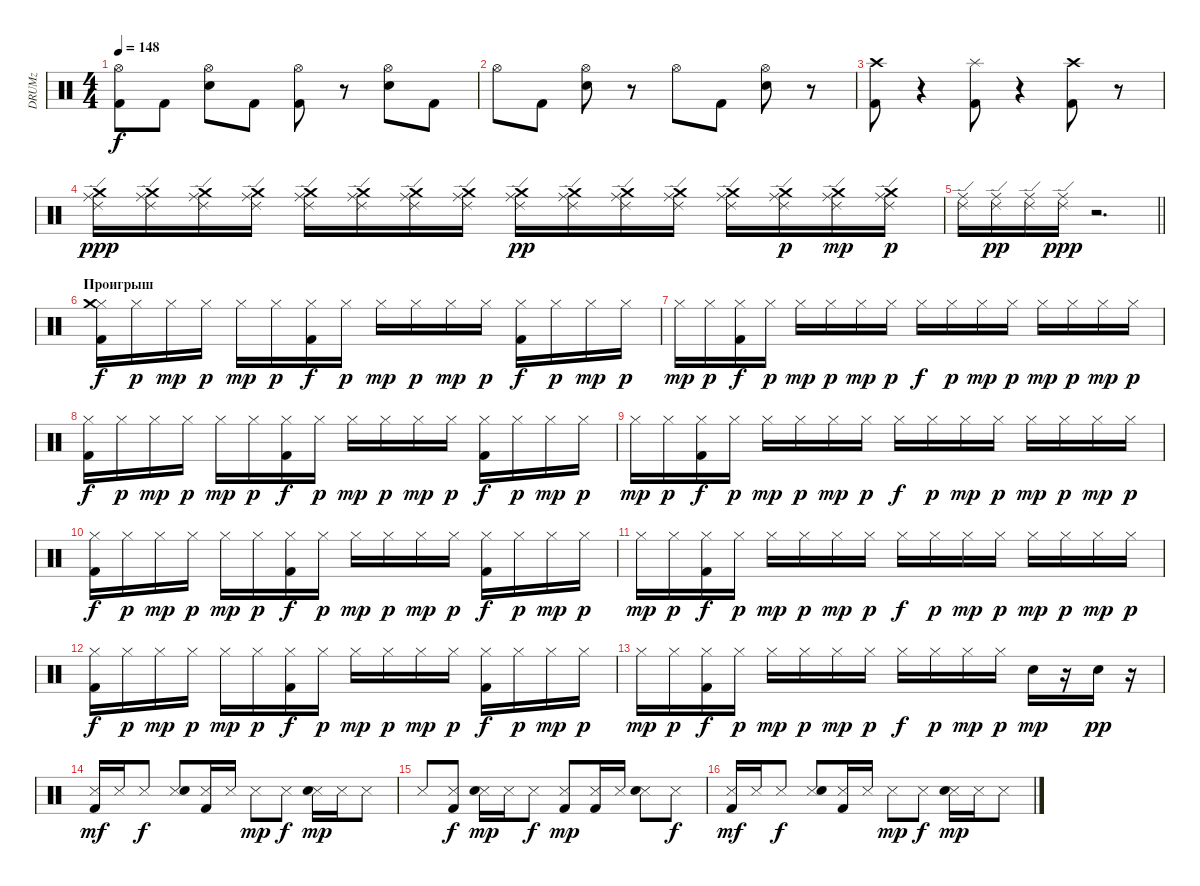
\track ("DRUMz" "DRUMz") {instrument percussion}
\staff {score}
\articulation defaults
\ts (4 4)
\tempo 148
\clef neutral
\ks c
("Hi-Hat (open)" "Kick (hit) 2").8{dy f} "Kick (hit) 2".8 ("Hi-Hat (open)" "Snare (hit) 2").8 "Kick (hit) 2".8 ("Hi-Hat (open)" "Kick (hit) 2").8 r.8 ("Hi-Hat (open)" "Snare (hit) 2").8 "Kick (hit) 2".8 |
"Hi-Hat (open)".8 "Kick (hit) 2".8 ("Hi-Hat (open)" "Snare (hit) 2").8 r.8 "Hi-Hat (open)".8 "Kick (hit) 2".8 ("Hi-Hat (open)" "Snare (hit) 2").8 r.8 |
("Kick (hit) 2" "Crash high (hit)").8 r.4 ("Splash (hit)" "Kick (hit) 2").8 r.4 ("Kick (hit) 2" "Crash high (hit)").8 r.8 |
("Ride (middle)" "Ride (edge) 2" "Crash medium (hit)").16{dy ppp} ("Ride (middle)" "Crash medium (hit)" "Ride (edge) 2").16 ("Ride (middle)" "Crash medium (hit)" "Ride (edge) 2").16 ("Ride (middle)" "Crash medium (hit)" "Ride (edge) 2").16 ("Ride (middle)" "Crash medium (hit)" "Ride (edge) 2").16 ("Ride (middle)" "Crash medium (hit)" "Ride (edge) 2").16 ("Ride (middle)" "Crash medium (hit)" "Ride (edge) 2").16 ("Ride (middle)" "Crash medium (hit)" "Ride (edge) 2").16 ("Ride (middle)" "Crash medium (hit)" "Ride (edge) 2").16{dy pp} ("Ride (middle)" "Crash medium (hit)" "Ride (edge) 2").16 ("Ride (middle)" "Crash medium (hit)" "Ride (edge) 2").16 ("Ride (middle)" "Crash medium (hit)" "Ride (edge) 2").16 ("Ride (middle)" "Crash medium (hit)" "Ride (edge) 2").16 ("Ride (middle)" "Ride (edge) 2" "Crash medium (hit)").16{dy p} ("Ride (middle)" "Ride (edge) 2" "Crash medium (hit)").16{dy mp} ("Ride (middle)" "Crash medium (hit)" "Ride (edge) 2").16{dy p} |
\barLineRight lightlight
("Ride (middle)" "Ride (edge) 2").16 ("Ride (middle)" "Ride (edge) 2").16{dy pp} ("Ride (middle)" "Ride (edge) 2").16 ("Ride (middle)" "Ride (edge) 2").16{dy ppp} r.2{d} |
\section ("" "Проигрыш")
("Hi-Hat (closed)" "Kick (hit) 2" "Crash medium (hit)").16{dy f} "Hi-Hat (closed)".16{dy p} "Hi-Hat (closed)".16{dy mp} "Hi-Hat (closed)".16{dy p} "Hi-Hat (closed)".16{dy mp} "Hi-Hat (closed)".16{dy p} ("Hi-Hat (closed)" "Kick (hit) 2").16{dy f} "Hi-Hat (closed)".16{dy p} "Hi-Hat (closed)".16{dy mp} "Hi-Hat (closed)".16{dy p} "Hi-Hat (closed)".16{dy mp} "Hi-Hat (closed)".16{dy p} ("Kick (hit) 2" "Hi-Hat (closed)").16{dy f} "Hi-Hat (closed)".16{dy p} "Hi-Hat (closed)".16{dy mp} "Hi-Hat (closed)".16{dy p} |
"Hi-Hat (closed)".16{dy mp} "Hi-Hat (closed)".16{dy p} ("Hi-Hat (closed)" "Kick (hit) 2").16{dy f} "Hi-Hat (closed)".16{dy p} "Hi-Hat (closed)".16{dy mp} "Hi-Hat (closed)".16{dy p} "Hi-Hat (closed)".16{dy mp} "Hi-Hat (closed)".16{dy p} "Hi-Hat (closed)".16{dy f} "Hi-Hat (closed)".16{dy p} "Hi-Hat (closed)".16{dy mp} "Hi-Hat (closed)".16{dy p} "Hi-Hat (closed)".16{dy mp} "Hi-Hat (closed)".16{dy p} "Hi-Hat (closed)".16{dy mp} "Hi-Hat (closed)".16{dy p} |
("Hi-Hat (closed)" "Kick (hit) 2").16{dy f} "Hi-Hat (closed)".16{dy p} "Hi-Hat (closed)".16{dy mp} "Hi-Hat (closed)".16{dy p} "Hi-Hat (closed)".16{dy mp} "Hi-Hat (closed)".16{dy p} ("Hi-Hat (closed)" "Kick (hit) 2").16{dy f} "Hi-Hat (closed)".16{dy p} "Hi-Hat (closed)".16{dy mp} "Hi-Hat (closed)".16{dy p} "Hi-Hat (closed)".16{dy mp} "Hi-Hat (closed)".16{dy p} ("Kick (hit) 2" "Hi-Hat (closed)").16{dy f} "Hi-Hat (closed)".16{dy p} "Hi-Hat (closed)".16{dy mp} "Hi-Hat (closed)".16{dy p} |
"Hi-Hat (closed)".16{dy mp} "Hi-Hat (closed)".16{dy p} ("Hi-Hat (closed)" "Kick (hit) 2").16{dy f} "Hi-Hat (closed)".16{dy p} "Hi-Hat (closed)".16{dy mp} "Hi-Hat (closed)".16{dy p} "Hi-Hat (closed)".16{dy mp} "Hi-Hat (closed)".16{dy p} "Hi-Hat (closed)".16{dy f} "Hi-Hat (closed)".16{dy p} "Hi-Hat (closed)".16{dy mp} "Hi-Hat (closed)".16{dy p} "Hi-Hat (closed)".16{dy mp} "Hi-Hat (closed)".16{dy p} "Hi-Hat (closed)".16{dy mp} "Hi-Hat (closed)".16{dy p} |
("Hi-Hat (closed)" "Kick (hit) 2").16{dy f} "Hi-Hat (closed)".16{dy p} "Hi-Hat (closed)".16{dy mp} "Hi-Hat (closed)".16{dy p} "Hi-Hat (closed)".16{dy mp} "Hi-Hat (closed)".16{dy p} ("Hi-Hat (closed)" "Kick (hit) 2").16{dy f} "Hi-Hat (closed)".16{dy p} "Hi-Hat (closed)".16{dy mp} "Hi-Hat (closed)".16{dy p} "Hi-Hat (closed)".16{dy mp} "Hi-Hat (closed)".16{dy p} ("Kick (hit) 2" "Hi-Hat (closed)").16{dy f} "Hi-Hat (closed)".16{dy p} "Hi-Hat (closed)".16{dy mp} "Hi-Hat (closed)".16{dy p} |
"Hi-Hat (closed)".16{dy mp} "Hi-Hat (closed)".16{dy p} ("Hi-Hat (closed)" "Kick (hit) 2").16{dy f} "Hi-Hat (closed)".16{dy p} "Hi-Hat (closed)".16{dy mp} "Hi-Hat (closed)".16{dy p} "Hi-Hat (closed)".16{dy mp} "Hi-Hat (closed)".16{dy p} "Hi-Hat (closed)".16{dy f} "Hi-Hat (closed)".16{dy p} "Hi-Hat (closed)".16{dy mp} "Hi-Hat (closed)".16{dy p} "Hi-Hat (closed)".16{dy mp} "Hi-Hat (closed)".16{dy p} "Hi-Hat (closed)".16{dy mp} "Hi-Hat (closed)".16{dy p} |
("Hi-Hat (closed)" "Kick (hit) 2").16{dy f} "Hi-Hat (closed)".16{dy p} "Hi-Hat (closed)".16{dy mp} "Hi-Hat (closed)".16{dy p} "Hi-Hat (closed)".16{dy mp} "Hi-Hat (closed)".16{dy p} ("Hi-Hat (closed)" "Kick (hit) 2").16{dy f} "Hi-Hat (closed)".16{dy p} "Hi-Hat (closed)".16{dy mp} "Hi-Hat (closed)".16{dy p} "Hi-Hat (closed)".16{dy mp} "Hi-Hat (closed)".16{dy p} ("Hi-Hat (closed)" "Kick (hit) 2").16{dy f} "Hi-Hat (closed)".16{dy p} "Hi-Hat (closed)".16{dy mp} "Hi-Hat (closed)".16{dy p} |
"Hi-Hat (closed)".16{dy mp} "Hi-Hat (closed)".16{dy p} ("Hi-Hat (closed)" "Kick (hit) 2").16{dy f} "Hi-Hat (closed)".16{dy p} "Hi-Hat (closed)".16{dy mp} "Hi-Hat (closed)".16{dy p} "Hi-Hat (closed)".16{dy mp} "Hi-Hat (closed)".16{dy p} "Hi-Hat (closed)".16{dy f} "Hi-Hat (closed)".16{dy p} "Hi-Hat (closed)".16{dy mp} "Hi-Hat (closed)".16{dy p} "Snare (hit) 2".16{dy mp} r.16 "Electric Snare (hit)".16{dy pp} r.16 |
("Snare (side stick) 3" "Kick (hit) 2").16{dy mf} "Snare (side stick) 3".16 "Snare (side stick) 3".8{dy f} ("Snare (side stick) 3" "Electric Snare (hit)").8 ("Snare (side stick) 3" "Kick (hit) 2").16 "Snare (side stick) 3".16 "Snare (side stick) 3".8{dy mp} "Snare (side stick) 3".8{dy f} ("Snare (side stick) 3" "Electric Snare (hit)").16{dy mp} "Snare (side stick) 3".16 "Snare (side stick) 3".8 |
"Snare (side stick) 3".8 ("Snare (side stick) 3" "Kick (hit) 2").8{dy f} ("Snare (side stick) 3" "Electric Snare (hit)").16{dy mp} "Snare (side stick) 3".16 "Snare (side stick) 3".8{dy f} ("Snare (side stick) 3" "Kick (hit) 2").8{dy mp} ("Snare (side stick) 3" "Kick (hit) 2").16 "Snare (side stick) 3".16 ("Snare (side stick) 3" "Electric Snare (hit)").8 "Snare (side stick) 3".8{dy f} |
("Snare (side stick) 3" "Kick (hit) 2").16{dy mf} "Snare (side stick) 3".16 "Snare (side stick) 3".8{dy f} ("Snare (side stick) 3" "Electric Snare (hit)").8 ("Snare (side stick) 3" "Kick (hit) 2").16 "Snare (side stick) 3".16 "Snare (side stick) 3".8{dy mp} "Snare (side stick) 3".8{dy f} ("Snare (side stick) 3" "Electric Snare (hit)").16{dy mp} "Snare (side stick) 3".16 "Snare (side stick) 3".8
